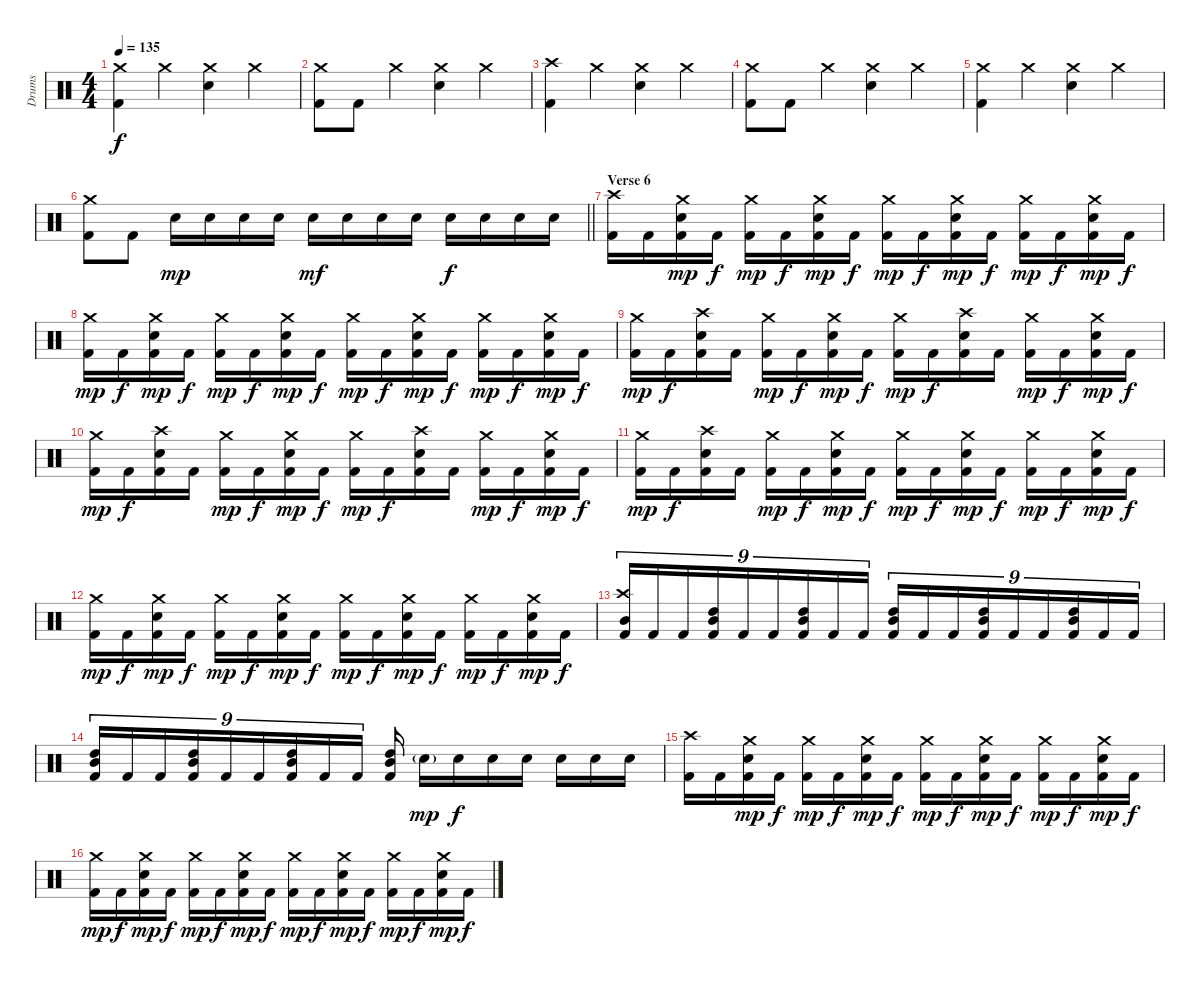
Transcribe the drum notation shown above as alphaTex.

\track ("Drums" "Drums") {instrument percussion}
\staff {score}
\articulation defaults
\ts (4 4)
\tempo 135
\clef neutral
\ks c
("Crash medium (hit)" "Kick (hit) 2").4{dy f} "Crash medium (hit)".4 ("Crash medium (hit)" "Snare (hit) 2").4 "Crash medium (hit)".4 |
("Crash medium (hit)" "Kick (hit) 2").8 "Kick (hit) 2".8 "Crash medium (hit)".4 ("Crash medium (hit)" "Snare (hit) 2").4 "Crash medium (hit)".4 |
("Crash high (hit)" "Kick (hit) 2").4 "Crash medium (hit)".4 ("Crash medium (hit)" "Snare (hit) 2").4 "Crash medium (hit)".4 |
("Crash medium (hit)" "Kick (hit) 2").8 "Kick (hit) 2".8 "Crash medium (hit)".4 ("Crash medium (hit)" "Snare (hit) 2").4 "Crash medium (hit)".4 |
("Crash medium (hit)" "Kick (hit) 2").4 "Crash medium (hit)".4 ("Crash medium (hit)" "Snare (hit) 2").4 "Crash medium (hit)".4 |
\barLineRight lightlight
("Crash medium (hit)" "Kick (hit) 2").8 "Kick (hit) 2".8 "Snare (hit) 2".16{dy mp} "Snare (hit) 2".16 "Snare (hit) 2".16 "Snare (hit) 2".16 "Snare (hit) 2".16{dy mf} "Snare (hit) 2".16 "Snare (hit) 2".16 "Snare (hit) 2".16 "Snare (hit) 2".16{dy f} "Snare (hit) 2".16 "Snare (hit) 2".16 "Snare (hit) 2".16 |
\section ("" "Verse 6")
("Crash high (hit)" "Kick (hit) 2").16 "Kick (hit) 2".16 ("Crash medium (hit)" "Snare (hit) 2" "Kick (hit) 2").16{dy mp} "Kick (hit) 2".16{dy f} ("Crash medium (hit)" "Kick (hit) 2").16{dy mp} "Kick (hit) 2".16{dy f} ("Crash medium (hit)" "Snare (hit) 2" "Kick (hit) 2").16{dy mp} "Kick (hit) 2".16{dy f} ("Crash medium (hit)" "Kick (hit) 2").16{dy mp} "Kick (hit) 2".16{dy f} ("Crash medium (hit)" "Snare (hit) 2" "Kick (hit) 2").16{dy mp} "Kick (hit) 2".16{dy f} ("Crash medium (hit)" "Kick (hit) 2").16{dy mp} "Kick (hit) 2".16{dy f} ("Crash medium (hit)" "Snare (hit) 2" "Kick (hit) 2").16{dy mp} "Kick (hit) 2".16{dy f} |
("Crash medium (hit)" "Kick (hit) 2").16{dy mp} "Kick (hit) 2".16{dy f} ("Crash medium (hit)" "Snare (hit) 2" "Kick (hit) 2").16{dy mp} "Kick (hit) 2".16{dy f} ("Crash medium (hit)" "Kick (hit) 2").16{dy mp} "Kick (hit) 2".16{dy f} ("Crash medium (hit)" "Snare (hit) 2" "Kick (hit) 2").16{dy mp} "Kick (hit) 2".16{dy f} ("Crash medium (hit)" "Kick (hit) 2").16{dy mp} "Kick (hit) 2".16{dy f} ("Crash medium (hit)" "Snare (hit) 2" "Kick (hit) 2").16{dy mp} "Kick (hit) 2".16{dy f} ("Crash medium (hit)" "Kick (hit) 2").16{dy mp} "Kick (hit) 2".16{dy f} ("Crash medium (hit)" "Snare (hit) 2" "Kick (hit) 2").16{dy mp} "Kick (hit) 2".16{dy f} |
("Crash medium (hit)" "Kick (hit) 2").16{dy mp} "Kick (hit) 2".16{dy f} ("Crash high (hit)" "Snare (hit) 2" "Kick (hit) 2").16 "Kick (hit) 2".16 ("Crash medium (hit)" "Kick (hit) 2").16{dy mp} "Kick (hit) 2".16{dy f} ("Crash medium (hit)" "Snare (hit) 2" "Kick (hit) 2").16{dy mp} "Kick (hit) 2".16{dy f} ("Crash medium (hit)" "Kick (hit) 2").16{dy mp} "Kick (hit) 2".16{dy f} ("Crash high (hit)" "Snare (hit) 2" "Kick (hit) 2").16 "Kick (hit) 2".16 ("Crash medium (hit)" "Kick (hit) 2").16{dy mp} "Kick (hit) 2".16{dy f} ("Crash medium (hit)" "Snare (hit) 2" "Kick (hit) 2").16{dy mp} "Kick (hit) 2".16{dy f} |
("Crash medium (hit)" "Kick (hit) 2").16{dy mp} "Kick (hit) 2".16{dy f} ("Crash high (hit)" "Snare (hit) 2" "Kick (hit) 2").16 "Kick (hit) 2".16 ("Crash medium (hit)" "Kick (hit) 2").16{dy mp} "Kick (hit) 2".16{dy f} ("Crash medium (hit)" "Snare (hit) 2" "Kick (hit) 2").16{dy mp} "Kick (hit) 2".16{dy f} ("Crash medium (hit)" "Kick (hit) 2").16{dy mp} "Kick (hit) 2".16{dy f} ("Crash high (hit)" "Snare (hit) 2" "Kick (hit) 2").16 "Kick (hit) 2".16 ("Crash medium (hit)" "Kick (hit) 2").16{dy mp} "Kick (hit) 2".16{dy f} ("Crash medium (hit)" "Snare (hit) 2" "Kick (hit) 2").16{dy mp} "Kick (hit) 2".16{dy f} |
("Crash medium (hit)" "Kick (hit) 2").16{dy mp} "Kick (hit) 2".16{dy f} ("Crash high (hit)" "Snare (hit) 2" "Kick (hit) 2").16 "Kick (hit) 2".16 ("Crash medium (hit)" "Kick (hit) 2").16{dy mp} "Kick (hit) 2".16{dy f} ("Crash medium (hit)" "Snare (hit) 2" "Kick (hit) 2").16{dy mp} "Kick (hit) 2".16{dy f} ("Crash medium (hit)" "Kick (hit) 2").16{dy mp} "Kick (hit) 2".16{dy f} ("Crash medium (hit)" "Snare (hit) 2" "Kick (hit) 2").16{dy mp} "Kick (hit) 2".16{dy f} ("Crash medium (hit)" "Kick (hit) 2").16{dy mp} "Kick (hit) 2".16{dy f} ("Crash medium (hit)" "Snare (hit) 2" "Kick (hit) 2").16{dy mp} "Kick (hit) 2".16{dy f} |
("Crash medium (hit)" "Kick (hit) 2").16{dy mp} "Kick (hit) 2".16{dy f} ("Crash medium (hit)" "Snare (hit) 2" "Kick (hit) 2").16{dy mp} "Kick (hit) 2".16{dy f} ("Crash medium (hit)" "Kick (hit) 2").16{dy mp} "Kick (hit) 2".16{dy f} ("Crash medium (hit)" "Snare (hit) 2" "Kick (hit) 2").16{dy mp} "Kick (hit) 2".16{dy f} ("Crash medium (hit)" "Kick (hit) 2").16{dy mp} "Kick (hit) 2".16{dy f} ("Crash medium (hit)" "Snare (hit) 2" "Kick (hit) 2").16{dy mp} "Kick (hit) 2".16{dy f} ("Crash medium (hit)" "Kick (hit) 2").16{dy mp} "Kick (hit) 2".16{dy f} ("Crash medium (hit)" "Snare (hit) 2" "Kick (hit) 2").16{dy mp} "Kick (hit) 2".16{dy f} |
("Crash high (hit)" "Mid Tom (hit)" "Kick (hit) 2").16{tu (9 8)} "Kick (hit) 2".16{tu (9 8)} "Kick (hit) 2".16{tu (9 8)} ("High Tom (hit)" "Mid Tom (hit)" "Kick (hit) 2").16{tu (9 8)} "Kick (hit) 2".16{tu (9 8)} "Kick (hit) 2".16{tu (9 8)} ("High Tom (hit)" "Mid Tom (hit)" "Kick (hit) 2").16{tu (9 8)} "Kick (hit) 2".16{tu (9 8)} "Kick (hit) 2".16{tu (9 8)} ("High Tom (hit)" "Mid Tom (hit)" "Kick (hit) 2").16{tu (9 8)} "Kick (hit) 2".16{tu (9 8)} "Kick (hit) 2".16{tu (9 8)} ("High Tom (hit)" "Mid Tom (hit)" "Kick (hit) 2").16{tu (9 8)} "Kick (hit) 2".16{tu (9 8)} "Kick (hit) 2".16{tu (9 8)} ("High Tom (hit)" "Mid Tom (hit)" "Kick (hit) 2").16{tu (9 8)} "Kick (hit) 2".16{tu (9 8)} "Kick (hit) 2".16{tu (9 8)} |
("High Tom (hit)" "Mid Tom (hit)" "Kick (hit) 2").16{tu (9 8)} "Kick (hit) 2".16{tu (9 8)} "Kick (hit) 2".16{tu (9 8)} ("High Tom (hit)" "Mid Tom (hit)" "Kick (hit) 2").16{tu (9 8)} "Kick (hit) 2".16{tu (9 8)} "Kick (hit) 2".16{tu (9 8)} ("High Tom (hit)" "Mid Tom (hit)" "Kick (hit) 2").16{tu (9 8)} "Kick (hit) 2".16{tu (9 8)} "Kick (hit) 2".16{tu (9 8)} ("High Tom (hit)" "Mid Tom (hit)" "Kick (hit) 2").16 "Snare (hit) 2"{g}.16{dy mp} "Snare (hit) 2".16{dy f} "Snare (hit) 2".16 "Snare (hit) 2".16 "Snare (hit) 2".16 "Snare (hit) 2".16 "Snare (hit) 2".16 |
("Crash high (hit)" "Kick (hit) 2").16 "Kick (hit) 2".16 ("Crash medium (hit)" "Snare (hit) 2" "Kick (hit) 2").16{dy mp} "Kick (hit) 2".16{dy f} ("Crash medium (hit)" "Kick (hit) 2").16{dy mp} "Kick (hit) 2".16{dy f} ("Crash medium (hit)" "Snare (hit) 2" "Kick (hit) 2").16{dy mp} "Kick (hit) 2".16{dy f} ("Crash medium (hit)" "Kick (hit) 2").16{dy mp} "Kick (hit) 2".16{dy f} ("Crash medium (hit)" "Snare (hit) 2" "Kick (hit) 2").16{dy mp} "Kick (hit) 2".16{dy f} ("Crash medium (hit)" "Kick (hit) 2").16{dy mp} "Kick (hit) 2".16{dy f} ("Crash medium (hit)" "Snare (hit) 2" "Kick (hit) 2").16{dy mp} "Kick (hit) 2".16{dy f} |
("Crash medium (hit)" "Kick (hit) 2").16{dy mp} "Kick (hit) 2".16{dy f} ("Crash medium (hit)" "Snare (hit) 2" "Kick (hit) 2").16{dy mp} "Kick (hit) 2".16{dy f} ("Crash medium (hit)" "Kick (hit) 2").16{dy mp} "Kick (hit) 2".16{dy f} ("Crash medium (hit)" "Snare (hit) 2" "Kick (hit) 2").16{dy mp} "Kick (hit) 2".16{dy f} ("Crash medium (hit)" "Kick (hit) 2").16{dy mp} "Kick (hit) 2".16{dy f} ("Crash medium (hit)" "Snare (hit) 2" "Kick (hit) 2").16{dy mp} "Kick (hit) 2".16{dy f} ("Crash medium (hit)" "Kick (hit) 2").16{dy mp} "Kick (hit) 2".16{dy f} ("Crash medium (hit)" "Snare (hit) 2" "Kick (hit) 2").16{dy mp} "Kick (hit) 2".16{dy f}
